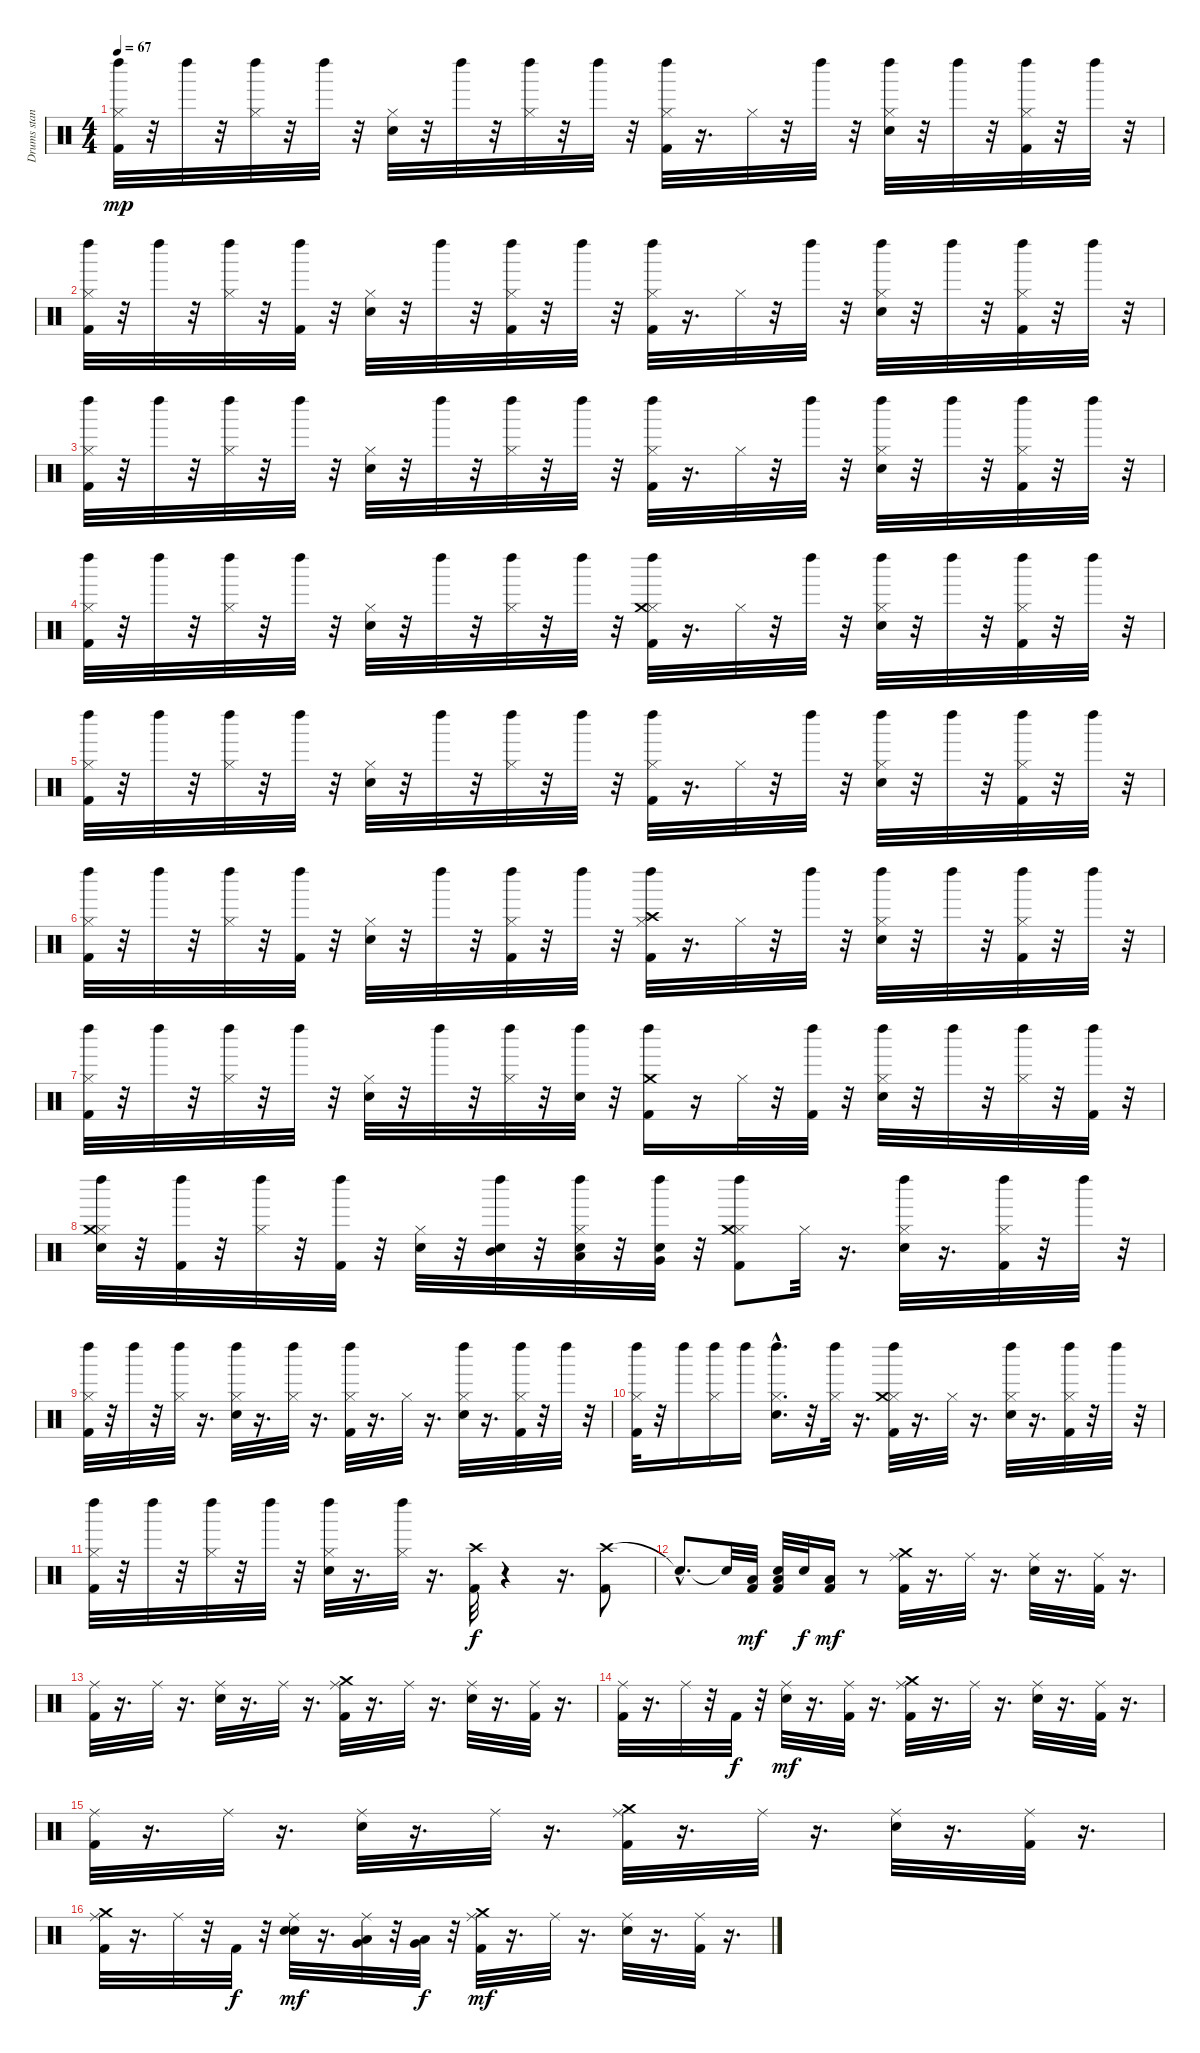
\track ("Drums stand. 1 ard" "Drums stan") {instrument percussion}
\staff {score}
\articulation defaults
\ts (4 4)
\tempo 67
\clef neutral
\ks c
("Kick (hit) 2" "Hi-Hat (closed)" "Left Maraca (hit)").32{dy mp} r.32 "Left Maraca (hit)".32 r.32 ("Hi-Hat (closed)" "Left Maraca (hit)").32 r.32 "Left Maraca (hit)".32 r.32 ("Electric Snare (hit)" "Hi-Hat (closed)").32 r.32 "Left Maraca (hit)".32 r.32 ("Hi-Hat (closed)" "Left Maraca (hit)").32 r.32 "Left Maraca (hit)".32 r.32 ("Kick (hit) 2" "Hi-Hat (closed)" "Left Maraca (hit)").32 r.16{d} "Hi-Hat (closed)".32 r.32 "Left Maraca (hit)".32 r.32 ("Electric Snare (hit)" "Hi-Hat (closed)" "Left Maraca (hit)").32 r.32 "Left Maraca (hit)".32 r.32 ("Kick (hit) 2" "Hi-Hat (closed)" "Left Maraca (hit)").32 r.32 "Left Maraca (hit)".32 r.32 |
("Kick (hit) 2" "Hi-Hat (closed)" "Left Maraca (hit)").32 r.32 "Left Maraca (hit)".32 r.32 ("Hi-Hat (closed)" "Left Maraca (hit)").32 r.32 ("Kick (hit) 2" "Left Maraca (hit)").32 r.32 ("Electric Snare (hit)" "Hi-Hat (closed)").32 r.32 "Left Maraca (hit)".32 r.32 ("Kick (hit) 2" "Hi-Hat (closed)" "Left Maraca (hit)").32 r.32 "Left Maraca (hit)".32 r.32 ("Kick (hit) 2" "Hi-Hat (closed)" "Left Maraca (hit)").32 r.16{d} "Hi-Hat (closed)".32 r.32 "Left Maraca (hit)".32 r.32 ("Electric Snare (hit)" "Hi-Hat (closed)" "Left Maraca (hit)").32 r.32 "Left Maraca (hit)".32 r.32 ("Kick (hit) 2" "Hi-Hat (closed)" "Left Maraca (hit)").32 r.32 "Left Maraca (hit)".32 r.32 |
("Kick (hit) 2" "Hi-Hat (closed)" "Left Maraca (hit)").32 r.32 "Left Maraca (hit)".32 r.32 ("Hi-Hat (closed)" "Left Maraca (hit)").32 r.32 "Left Maraca (hit)".32 r.32 ("Electric Snare (hit)" "Hi-Hat (closed)").32 r.32 "Left Maraca (hit)".32 r.32 ("Hi-Hat (closed)" "Left Maraca (hit)").32 r.32 "Left Maraca (hit)".32 r.32 ("Kick (hit) 2" "Hi-Hat (closed)" "Left Maraca (hit)").32 r.16{d} "Hi-Hat (closed)".32 r.32 "Left Maraca (hit)".32 r.32 ("Electric Snare (hit)" "Hi-Hat (closed)" "Left Maraca (hit)").32 r.32 "Left Maraca (hit)".32 r.32 ("Kick (hit) 2" "Hi-Hat (closed)" "Left Maraca (hit)").32 r.32 "Left Maraca (hit)".32 r.32 |
("Kick (hit) 2" "Hi-Hat (closed)" "Left Maraca (hit)").32 r.32 "Left Maraca (hit)".32 r.32 ("Hi-Hat (closed)" "Left Maraca (hit)").32 r.32 "Left Maraca (hit)".32 r.32 ("Electric Snare (hit)" "Hi-Hat (closed)").32 r.32 "Left Maraca (hit)".32 r.32 ("Hi-Hat (closed)" "Left Maraca (hit)").32 r.32 "Left Maraca (hit)".32 r.32 ("Kick (hit) 2" "Hi-Hat (closed)" "Crash medium (hit)" "Left Maraca (hit)").32 r.16{d} "Hi-Hat (closed)".32 r.32 "Left Maraca (hit)".32 r.32 ("Electric Snare (hit)" "Hi-Hat (closed)" "Left Maraca (hit)").32 r.32 "Left Maraca (hit)".32 r.32 ("Kick (hit) 2" "Hi-Hat (closed)" "Left Maraca (hit)").32 r.32 "Left Maraca (hit)".32 r.32 |
("Kick (hit) 2" "Hi-Hat (closed)" "Left Maraca (hit)").32 r.32 "Left Maraca (hit)".32 r.32 ("Hi-Hat (closed)" "Left Maraca (hit)").32 r.32 "Left Maraca (hit)".32 r.32 ("Electric Snare (hit)" "Hi-Hat (closed)").32 r.32 "Left Maraca (hit)".32 r.32 ("Hi-Hat (closed)" "Left Maraca (hit)").32 r.32 "Left Maraca (hit)".32 r.32 ("Kick (hit) 2" "Hi-Hat (closed)" "Left Maraca (hit)").32 r.16{d} "Hi-Hat (closed)".32 r.32 "Left Maraca (hit)".32 r.32 ("Electric Snare (hit)" "Hi-Hat (closed)" "Left Maraca (hit)").32 r.32 "Left Maraca (hit)".32 r.32 ("Kick (hit) 2" "Hi-Hat (closed)" "Left Maraca (hit)").32 r.32 "Left Maraca (hit)".32 r.32 |
("Kick (hit) 2" "Hi-Hat (closed)" "Left Maraca (hit)").32 r.32 "Left Maraca (hit)".32 r.32 ("Hi-Hat (closed)" "Left Maraca (hit)").32 r.32 ("Kick (hit) 2" "Left Maraca (hit)").32 r.32 ("Electric Snare (hit)" "Hi-Hat (closed)").32 r.32 "Left Maraca (hit)".32 r.32 ("Kick (hit) 2" "Hi-Hat (closed)" "Left Maraca (hit)").32 r.32 "Left Maraca (hit)".32 r.32 ("Kick (hit) 2" "Hi-Hat (closed)" "Crash high (hit)" "Left Maraca (hit)").32 r.16{d} "Hi-Hat (closed)".32 r.32 "Left Maraca (hit)".32 r.32 ("Electric Snare (hit)" "Hi-Hat (closed)" "Left Maraca (hit)").32 r.32 "Left Maraca (hit)".32 r.32 ("Kick (hit) 2" "Hi-Hat (closed)" "Left Maraca (hit)").32 r.32 "Left Maraca (hit)".32 r.32 |
("Kick (hit) 2" "Hi-Hat (closed)" "Left Maraca (hit)").32 r.32 "Left Maraca (hit)".32 r.32 ("Hi-Hat (closed)" "Left Maraca (hit)").32 r.32 "Left Maraca (hit)".32 r.32 ("Electric Snare (hit)" "Hi-Hat (closed)").32 r.32 "Left Maraca (hit)".32 r.32 ("Hi-Hat (closed)" "Left Maraca (hit)").32 r.32 ("Electric Snare (hit)" "Left Maraca (hit)").32 r.32 ("Crash medium (hit)" "Kick (hit) 2" "Left Maraca (hit)").16 r.16 "Hi-Hat (closed)".32 r.32 ("Kick (hit) 2" "Left Maraca (hit)").32 r.32 ("Electric Snare (hit)" "Hi-Hat (closed)" "Left Maraca (hit)").32 r.32 "Left Maraca (hit)".32 r.32 ("Hi-Hat (closed)" "Left Maraca (hit)").32 r.32 ("Kick (hit) 2" "Left Maraca (hit)").32 r.32 |
("Electric Snare (hit)" "Hi-Hat (closed)" "Crash medium (hit)" "Left Maraca (hit)").32 r.32 ("Kick (hit) 2" "Left Maraca (hit)").32 r.32 ("Hi-Hat (closed)" "Left Maraca (hit)").32 r.32 ("Kick (hit) 2" "Left Maraca (hit)").32 r.32 ("Electric Snare (hit)" "Hi-Hat (closed)").32 r.32 ("Electric Snare (hit)" "Mid Tom (hit)" "Left Maraca (hit)").32 r.32 ("Electric Snare (hit)" "Hi-Hat (closed)" "Low Tom (hit)" "Left Maraca (hit)").32 r.32 ("Electric Snare (hit)" "Very Low Tom (hit)" "Left Maraca (hit)").32 r.32 ("Kick (hit) 2" "Hi-Hat (closed)" "Crash medium (hit)" "Left Maraca (hit)").8 "Hi-Hat (closed)".32 r.16{d} ("Electric Snare (hit)" "Hi-Hat (closed)" "Left Maraca (hit)").32 r.16{d} ("Kick (hit) 2" "Hi-Hat (closed)" "Left Maraca (hit)").32 r.32 "Left Maraca (hit)".32 r.32 |
("Kick (hit) 2" "Hi-Hat (closed)" "Left Maraca (hit)").32 r.32 "Left Maraca (hit)".32 r.32 ("Hi-Hat (closed)" "Left Maraca (hit)").32 r.16{d} ("Electric Snare (hit)" "Hi-Hat (closed)" "Left Maraca (hit)").32 r.16{d} ("Hi-Hat (closed)" "Left Maraca (hit)").32 r.16{d} ("Kick (hit) 2" "Hi-Hat (closed)" "Left Maraca (hit)").32 r.16{d} "Hi-Hat (closed)".32 r.16{d} ("Electric Snare (hit)" "Hi-Hat (closed)" "Left Maraca (hit)").32 r.16{d} ("Kick (hit) 2" "Hi-Hat (closed)" "Left Maraca (hit)").32 r.32 "Left Maraca (hit)".32 r.32 |
("Kick (hit) 2" "Hi-Hat (closed)" "Left Maraca (hit)").32 r.32 "Left Maraca (hit)".16 ("Hi-Hat (closed)" "Left Maraca (hit)").16 "Left Maraca (hit)".16 ("Electric Snare (hit)" "Hi-Hat (closed)" "Left Maraca (hit)"{hac}).16{d} r.32 ("Hi-Hat (closed)" "Left Maraca (hit)").32 r.16{d} ("Kick (hit) 2" "Hi-Hat (closed)" "Crash medium (hit)" "Left Maraca (hit)").32 r.16{d} "Hi-Hat (closed)".32 r.16{d} ("Electric Snare (hit)" "Hi-Hat (closed)" "Left Maraca (hit)").32 r.16{d} ("Kick (hit) 2" "Hi-Hat (closed)" "Left Maraca (hit)").32 r.32 "Left Maraca (hit)".32 r.32 |
("Kick (hit) 2" "Hi-Hat (closed)" "Left Maraca (hit)").32 r.32 "Left Maraca (hit)".32 r.32 ("Hi-Hat (closed)" "Left Maraca (hit)").32 r.32 "Left Maraca (hit)".32 r.32 ("Electric Snare (hit)" "Hi-Hat (closed)" "Left Maraca (hit)").32 r.16{d} ("Hi-Hat (closed)" "Left Maraca (hit)").32 r.16{d} ("Crash high (hit)" "Kick (hit) 2").32{dy f} r.4 r.16{d} ("Crash high (hit)" "Kick (hit) 2").8 |
"Snare (hit)"{hac t}.8{d} "Snare (hit)"{t}.32 ("Low Floor Tom (hit)" "Kick (hit) 2").32{dy mf} ("Low Floor Tom (hit)" "Kick (hit) 2" "Electric Snare (hit)").32 "Electric Snare (hit)".32{dy f} ("Low Floor Tom (hit)" "Kick (hit) 2").16{dy mf} r.8 ("Kick (hit) 2" "Ride (middle)" "Crash medium (hit)").32 r.16{d} "Ride (middle)".32 r.16{d} ("Electric Snare (hit)" "Ride (middle)").32 r.16{d} ("Kick (hit) 2" "Ride (middle)").32 r.16{d} |
("Kick (hit) 2" "Ride (middle)").32 r.16{d} "Ride (middle)".32 r.16{d} ("Electric Snare (hit)" "Ride (middle)").32 r.16{d} "Ride (middle)".32 r.16{d} ("Kick (hit) 2" "Ride (middle)" "Crash medium (hit)").32 r.16{d} "Ride (middle)".32 r.16{d} ("Electric Snare (hit)" "Ride (middle)").32 r.16{d} ("Kick (hit) 2" "Ride (middle)").32 r.16{d} |
("Kick (hit) 2" "Ride (middle)").32 r.16{d} "Ride (middle)".32 r.32 "Kick (hit) 2".32{dy f} r.32 ("Electric Snare (hit)" "Ride (middle)").32{dy mf} r.16{d} ("Kick (hit) 2" "Ride (middle)").32 r.16{d} ("Kick (hit) 2" "Ride (middle)" "Crash medium (hit)").32 r.16{d} "Ride (middle)".32 r.16{d} ("Electric Snare (hit)" "Ride (middle)").32 r.16{d} ("Kick (hit) 2" "Ride (middle)").32 r.16{d} |
("Kick (hit) 2" "Ride (middle)").32 r.16{d} "Ride (middle)".32 r.16{d} ("Electric Snare (hit)" "Ride (middle)").32 r.16{d} "Ride (middle)".32 r.16{d} ("Kick (hit) 2" "Ride (middle)" "Crash medium (hit)").32 r.16{d} "Ride (middle)".32 r.16{d} ("Electric Snare (hit)" "Ride (middle)").32 r.16{d} ("Kick (hit) 2" "Ride (middle)").32 r.16{d} |
("Kick (hit) 2" "Ride (middle)" "Crash medium (hit)").32 r.16{d} "Ride (middle)".32 r.32 "Kick (hit) 2".32{dy f} r.32 ("Electric Snare (hit)" "Electric Snare (hit)" "Ride (middle)").32{dy mf} r.16{d} ("Ride (middle)" "Low Floor Tom (hit)" "Very Low Tom (hit)").32 r.32 ("Low Floor Tom (hit)" "Very Low Tom (hit)").32{dy f} r.32 ("Kick (hit) 2" "Ride (middle)" "Crash medium (hit)").32{dy mf} r.16{d} "Ride (middle)".32 r.16{d} ("Electric Snare (hit)" "Ride (middle)").32 r.16{d} ("Kick (hit) 2" "Ride (middle)").32 r.16{d}
